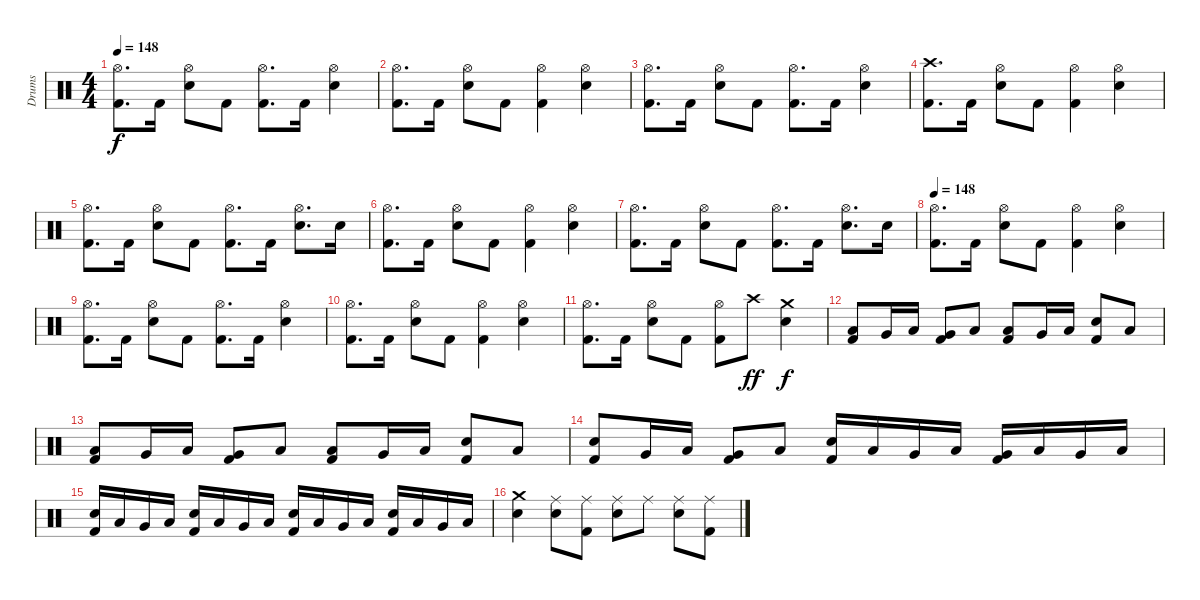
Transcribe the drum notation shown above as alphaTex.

\track ("Drums" "Drums") {instrument percussion}
\staff {score}
\articulation defaults
\ts (4 4)
\tempo 148
\clef neutral
\ks c
("Hi-Hat (open)" "Kick (hit) 2").8{d dy f} "Kick (hit) 2".16 ("Hi-Hat (open)" "Snare (hit) 2").8 "Kick (hit) 2".8 ("Hi-Hat (open)" "Kick (hit) 2").8{d} "Kick (hit) 2".16 ("Hi-Hat (open)" "Snare (hit) 2").4 |
("Hi-Hat (open)" "Kick (hit) 2").8{d} "Kick (hit) 2".16 ("Hi-Hat (open)" "Snare (hit) 2").8 "Kick (hit) 2".8 ("Hi-Hat (open)" "Kick (hit) 2").4 ("Hi-Hat (open)" "Snare (hit) 2").4 |
("Hi-Hat (open)" "Kick (hit) 2").8{d} "Kick (hit) 2".16 ("Hi-Hat (open)" "Snare (hit) 2").8 "Kick (hit) 2".8 ("Hi-Hat (open)" "Kick (hit) 2").8{d} "Kick (hit) 2".16 ("Hi-Hat (open)" "Snare (hit) 2").4 |
("Crash high (hit)" "Kick (hit) 2").8{d} "Kick (hit) 2".16 ("Hi-Hat (open)" "Snare (hit) 2").8 "Kick (hit) 2".8 ("Hi-Hat (open)" "Kick (hit) 2").4 ("Hi-Hat (open)" "Snare (hit) 2").4 |
("Hi-Hat (open)" "Kick (hit) 2").8{d} "Kick (hit) 2".16 ("Hi-Hat (open)" "Snare (hit) 2").8 "Kick (hit) 2".8 ("Hi-Hat (open)" "Kick (hit) 2").8{d} "Kick (hit) 2".16 ("Hi-Hat (open)" "Snare (hit) 2").8{d} "Snare (hit) 2".16 |
("Hi-Hat (open)" "Kick (hit) 2").8{d} "Kick (hit) 2".16 ("Hi-Hat (open)" "Snare (hit) 2").8 "Kick (hit) 2".8 ("Hi-Hat (open)" "Kick (hit) 2").4 ("Hi-Hat (open)" "Snare (hit) 2").4 |
("Hi-Hat (open)" "Kick (hit) 2").8{d} "Kick (hit) 2".16 ("Hi-Hat (open)" "Snare (hit) 2").8 "Kick (hit) 2".8 ("Hi-Hat (open)" "Kick (hit) 2").8{d} "Kick (hit) 2".16 ("Hi-Hat (open)" "Snare (hit) 2").8{d} "Snare (hit) 2".16 |
\tempo 148
("Hi-Hat (open)" "Kick (hit) 2").8{d} "Kick (hit) 2".16 ("Hi-Hat (open)" "Snare (hit) 2").8 "Kick (hit) 2".8 ("Hi-Hat (open)" "Kick (hit) 2").4 ("Hi-Hat (open)" "Snare (hit) 2").4 |
("Hi-Hat (open)" "Kick (hit) 2").8{d} "Kick (hit) 2".16 ("Hi-Hat (open)" "Snare (hit) 2").8 "Kick (hit) 2".8 ("Hi-Hat (open)" "Kick (hit) 2").8{d} "Kick (hit) 2".16 ("Hi-Hat (open)" "Snare (hit) 2").4 |
("Hi-Hat (open)" "Kick (hit) 2").8{d} "Kick (hit) 2".16 ("Hi-Hat (open)" "Snare (hit) 2").8 "Kick (hit) 2".8 ("Hi-Hat (open)" "Kick (hit) 2").4 ("Hi-Hat (open)" "Snare (hit) 2").4 |
("Hi-Hat (open)" "Kick (hit) 2").8{d} "Kick (hit) 2".16 ("Hi-Hat (open)" "Snare (hit) 2").8 "Kick (hit) 2".8 ("Hi-Hat (open)" "Kick (hit) 2").8 "Crash high (hit)".8{dy ff} ("Crash medium (hit)" "Snare (hit) 2").4{dy f} |
("Low Tom (hit)" "Kick (hit) 2").8 "Very Low Tom (hit)".16 "Low Tom (hit)".16 ("Very Low Tom (hit)" "Kick (hit) 2").8 "Low Tom (hit)".8 ("Low Tom (hit)" "Kick (hit) 2").8 "Very Low Tom (hit)".16 "Low Tom (hit)".16 ("Snare (hit) 2" "Kick (hit) 2").8 "Low Tom (hit)".8 |
("Low Tom (hit)" "Kick (hit) 2").8 "Very Low Tom (hit)".16 "Low Tom (hit)".16 ("Very Low Tom (hit)" "Kick (hit) 2").8 "Low Tom (hit)".8 ("Low Tom (hit)" "Kick (hit) 2").8 "Very Low Tom (hit)".16 "Low Tom (hit)".16 ("Snare (hit) 2" "Kick (hit) 2").8 "Low Tom (hit)".8 |
("Snare (hit) 2" "Kick (hit) 2").8 "Very Low Tom (hit)".16 "Low Tom (hit)".16 ("Very Low Tom (hit)" "Kick (hit) 2").8 "Low Tom (hit)".8 ("Snare (hit) 2" "Kick (hit) 2").16 "Low Tom (hit)".16 "Very Low Tom (hit)".16 "Low Tom (hit)".16 ("Very Low Tom (hit)" "Kick (hit) 2").16 "Low Tom (hit)".16 "Very Low Tom (hit)".16 "Low Tom (hit)".16 |
("Snare (hit) 2" "Kick (hit) 2").16 "Low Tom (hit)".16 "Very Low Tom (hit)".16 "Low Tom (hit)".16 ("Snare (hit) 2" "Kick (hit) 2").16 "Low Tom (hit)".16 "Very Low Tom (hit)".16 "Low Tom (hit)".16 ("Snare (hit) 2" "Kick (hit) 2").16 "Low Tom (hit)".16 "Very Low Tom (hit)".16 "Low Tom (hit)".16 ("Snare (hit) 2" "Kick (hit) 2").16 "Low Tom (hit)".16 "Very Low Tom (hit)".16 "Low Tom (hit)".16 |
("Crash medium (hit)" "Snare (hit) 2").4 ("Ride (middle)" "Snare (hit) 2").8 ("Ride (middle)" "Kick (hit) 2").8 ("Ride (middle)" "Snare (hit) 2").8 "Ride (middle)".8 ("Ride (middle)" "Snare (hit) 2").8 ("Ride (middle)" "Kick (hit) 2").8
